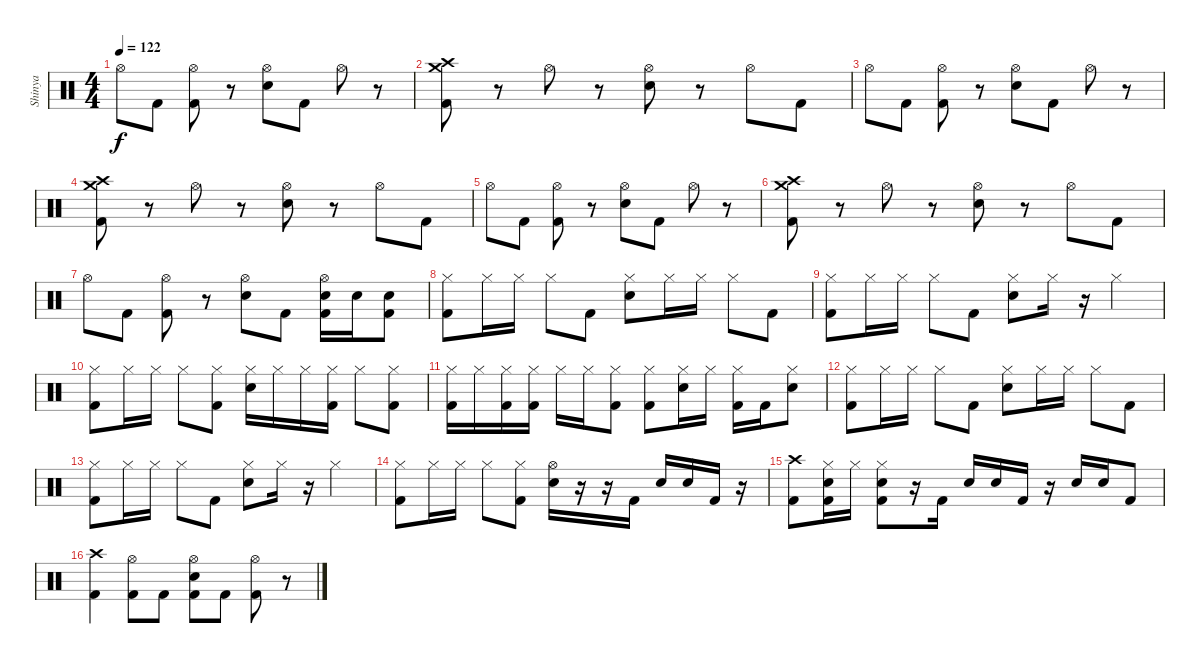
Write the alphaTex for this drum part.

\track ("Shinya" "Shinya") {instrument percussion}
\staff {score}
\articulation defaults
\ts (4 4)
\tempo 122
\clef neutral
\ks c "Hi-Hat (open)".8{dy f} "Kick (hit) 2".8
("Hi-Hat (open)" "Kick (hit) 2").8 r.8 ("Hi-Hat (open)" "Electric Snare (hit)").8 "Kick (hit) 2".8 "Hi-Hat (open)".8 r.8 |
("Crash high (hit)" "Crash medium (hit)" "Kick (hit) 2").8 r.8 "Hi-Hat (open)".8 r.8 ("Hi-Hat (open)" "Electric Snare (hit)").8 r.8 "Hi-Hat (open)".8 "Kick (hit) 2".8 |
"Hi-Hat (open)".8 "Kick (hit) 2".8 ("Hi-Hat (open)" "Kick (hit) 2").8 r.8 ("Hi-Hat (open)" "Electric Snare (hit)").8 "Kick (hit) 2".8 "Hi-Hat (open)".8 r.8 |
("Crash high (hit)" "Crash medium (hit)" "Kick (hit) 2").8 r.8 "Hi-Hat (open)".8 r.8 ("Hi-Hat (open)" "Electric Snare (hit)").8 r.8 "Hi-Hat (open)".8 "Kick (hit) 2".8 |
"Hi-Hat (open)".8 "Kick (hit) 2".8 ("Hi-Hat (open)" "Kick (hit) 2").8 r.8 ("Hi-Hat (open)" "Electric Snare (hit)").8 "Kick (hit) 2".8 "Hi-Hat (open)".8 r.8 |
("Crash high (hit)" "Crash medium (hit)" "Kick (hit) 2").8 r.8 "Hi-Hat (open)".8 r.8 ("Hi-Hat (open)" "Electric Snare (hit)").8 r.8 "Hi-Hat (open)".8 "Kick (hit) 2".8 |
"Hi-Hat (open)".8 "Kick (hit) 2".8 ("Hi-Hat (open)" "Kick (hit) 2").8 r.8 ("Hi-Hat (open)" "Electric Snare (hit)").8 "Kick (hit) 2".8 ("Hi-Hat (open)" "Electric Snare (hit)" "Kick (hit) 2").16 "Electric Snare (hit)".16 ("Electric Snare (hit)" "Kick (hit) 2").8 |
("Hi-Hat (closed)" "Kick (hit) 2").8 "Hi-Hat (closed)".16 "Hi-Hat (closed)".16 "Hi-Hat (closed)".8 "Kick (hit) 2".8 ("Hi-Hat (closed)" "Electric Snare (hit)").8 "Hi-Hat (closed)".16 "Hi-Hat (closed)".16 "Hi-Hat (closed)".8 "Kick (hit) 2".8 |
("Hi-Hat (closed)" "Kick (hit) 2").8 "Hi-Hat (closed)".16 "Hi-Hat (closed)".16 "Hi-Hat (closed)".8 "Kick (hit) 2".8 ("Hi-Hat (closed)" "Electric Snare (hit)").8 "Hi-Hat (closed)".16 r.16 "Hi-Hat (closed)".4 |
("Hi-Hat (closed)" "Kick (hit) 2").8 "Hi-Hat (closed)".16 "Hi-Hat (closed)".16 "Hi-Hat (closed)".8 ("Hi-Hat (closed)" "Kick (hit) 2").8 ("Hi-Hat (closed)" "Electric Snare (hit)").16 "Hi-Hat (closed)".16 "Hi-Hat (closed)".16 ("Hi-Hat (closed)" "Kick (hit) 2").16 "Hi-Hat (closed)".8 ("Hi-Hat (closed)" "Kick (hit) 2").8 |
("Hi-Hat (closed)" "Kick (hit) 2").16 "Hi-Hat (closed)".16 ("Hi-Hat (closed)" "Kick (hit) 2").16 ("Hi-Hat (closed)" "Kick (hit) 2").16 "Hi-Hat (closed)".16 "Hi-Hat (closed)".16 ("Hi-Hat (closed)" "Kick (hit) 2").8 ("Hi-Hat (closed)" "Kick (hit) 2").8 ("Hi-Hat (closed)" "Electric Snare (hit)").16 "Hi-Hat (closed)".16 ("Hi-Hat (closed)" "Kick (hit) 2").16 "Kick (hit) 2".16 ("Hi-Hat (closed)" "Electric Snare (hit)").8 |
("Hi-Hat (closed)" "Kick (hit) 2").8 "Hi-Hat (closed)".16 "Hi-Hat (closed)".16 "Hi-Hat (closed)".8 "Kick (hit) 2".8 ("Hi-Hat (closed)" "Electric Snare (hit)").8 "Hi-Hat (closed)".16 "Hi-Hat (closed)".16 "Hi-Hat (closed)".8 "Kick (hit) 2".8 |
("Hi-Hat (closed)" "Kick (hit) 2").8 "Hi-Hat (closed)".16 "Hi-Hat (closed)".16 "Hi-Hat (closed)".8 "Kick (hit) 2".8 ("Hi-Hat (closed)" "Electric Snare (hit)").8 "Hi-Hat (closed)".16 r.16 "Hi-Hat (closed)".4 |
("Hi-Hat (closed)" "Kick (hit) 2").8 "Hi-Hat (closed)".16 "Hi-Hat (closed)".16 "Hi-Hat (closed)".8 ("Hi-Hat (closed)" "Kick (hit) 2").8 ("Hi-Hat (open)" "Electric Snare (hit)").16 r.16 r.16 "Kick (hit) 2".16 "Electric Snare (hit)".16 "Electric Snare (hit)".16 "Kick (hit) 2".16 r.16 |
("Crash high (hit)" "Kick (hit) 2").8 ("Hi-Hat (closed)" "Electric Snare (hit)" "Kick (hit) 2").16 "Hi-Hat (closed)".16 ("Hi-Hat (closed)" "Electric Snare (hit)" "Kick (hit) 2").8 r.16 "Kick (hit) 2".16 "Electric Snare (hit)".16 "Electric Snare (hit)".16 "Kick (hit) 2".16 r.16 "Electric Snare (hit)".16 "Electric Snare (hit)".16 "Kick (hit) 2".8 |
("Crash high (hit)" "Kick (hit) 2").4 ("Hi-Hat (open)" "Kick (hit) 2").8 "Kick (hit) 2".8 ("Hi-Hat (open)" "Electric Snare (hit)" "Kick (hit) 2").8 "Kick (hit) 2".8 ("Hi-Hat (open)" "Kick (hit) 2").8 r.8
